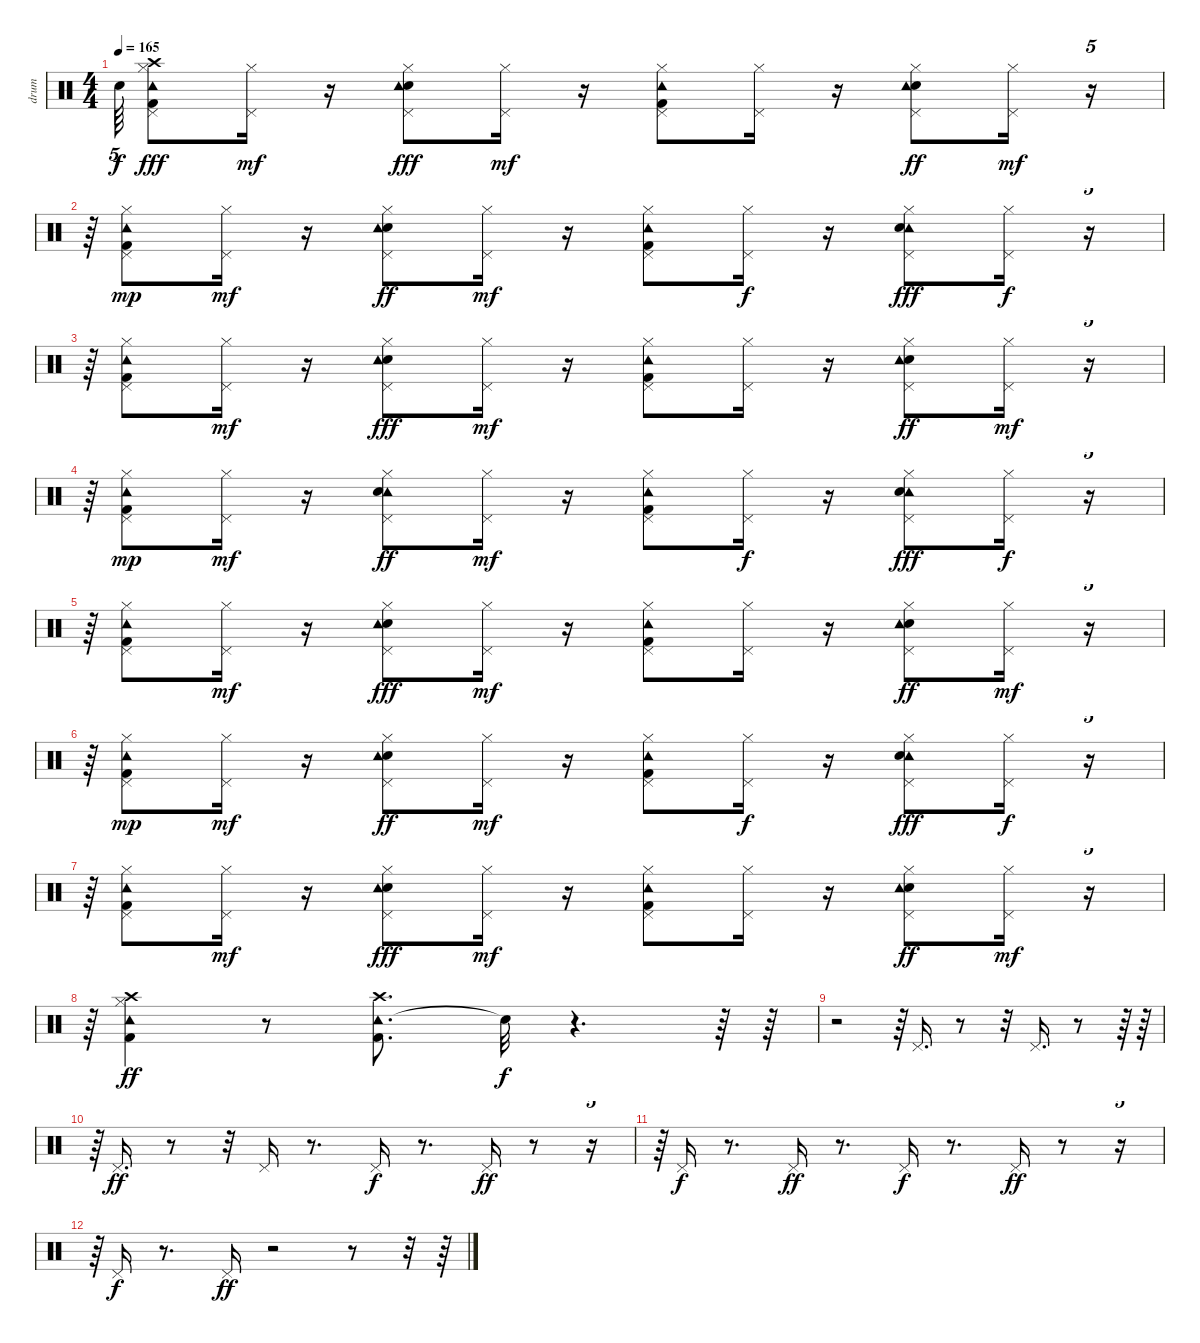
\track ("drum" "drum") {instrument percussion}
\staff {score}
\articulation defaults
\ts (4 4)
\tempo 165
\clef neutral
\ks c "Snare (hit)"{t}.64{tu (5 4) dy f}
("Hi-Hat (closed)" "Pedal Hi-Hat (hit)" "Kick (hit) 2" "Tambourine (hit)" "Crash high (hit)").8{dy fff} ("Hi-Hat (closed)" "Pedal Hi-Hat (hit)").16{dy mf} r.16 ("Hi-Hat (closed)" "Pedal Hi-Hat (hit)" "Electric Snare (hit)" "Tambourine (hit)").8{dy fff} ("Hi-Hat (closed)" "Pedal Hi-Hat (hit)").16{dy mf} r.16 ("Hi-Hat (closed)" "Pedal Hi-Hat (hit)" "Kick (hit) 2" "Tambourine (hit)").8 ("Hi-Hat (closed)" "Pedal Hi-Hat (hit)").16 r.16 ("Hi-Hat (closed)" "Pedal Hi-Hat (hit)" "Electric Snare (hit)" "Tambourine (hit)").8{dy ff} ("Hi-Hat (closed)" "Pedal Hi-Hat (hit)").16{dy mf} r.16{tu (5 4)} |
r.64{tu (5 4)} ("Hi-Hat (closed)" "Pedal Hi-Hat (hit)" "Kick (hit) 2" "Tambourine (hit)").8{dy mp} ("Hi-Hat (closed)" "Pedal Hi-Hat (hit)").16{dy mf} r.16 ("Hi-Hat (closed)" "Pedal Hi-Hat (hit)" "Electric Snare (hit)" "Tambourine (hit)").8{dy ff} ("Hi-Hat (closed)" "Pedal Hi-Hat (hit)").16{dy mf} r.16 ("Hi-Hat (closed)" "Tambourine (hit)" "Pedal Hi-Hat (hit)" "Kick (hit) 2").8 ("Hi-Hat (closed)" "Pedal Hi-Hat (hit)").16{dy f} r.16 ("Hi-Hat (closed)" "Tambourine (hit)" "Pedal Hi-Hat (hit)" "Electric Snare (hit)").8{dy fff} ("Hi-Hat (closed)" "Pedal Hi-Hat (hit)").16{dy f} r.16{tu (5 4)} |
r.64{tu (5 4)} ("Hi-Hat (closed)" "Pedal Hi-Hat (hit)" "Kick (hit) 2" "Tambourine (hit)").8 ("Hi-Hat (closed)" "Pedal Hi-Hat (hit)").16{dy mf} r.16 ("Hi-Hat (closed)" "Pedal Hi-Hat (hit)" "Electric Snare (hit)" "Tambourine (hit)").8{dy fff} ("Hi-Hat (closed)" "Pedal Hi-Hat (hit)").16{dy mf} r.16 ("Hi-Hat (closed)" "Pedal Hi-Hat (hit)" "Kick (hit) 2" "Tambourine (hit)").8 ("Hi-Hat (closed)" "Pedal Hi-Hat (hit)").16 r.16 ("Hi-Hat (closed)" "Pedal Hi-Hat (hit)" "Electric Snare (hit)" "Tambourine (hit)").8{dy ff} ("Hi-Hat (closed)" "Pedal Hi-Hat (hit)").16{dy mf} r.16{tu (5 4)} |
r.64{tu (5 4)} ("Hi-Hat (closed)" "Pedal Hi-Hat (hit)" "Kick (hit) 2" "Tambourine (hit)").8{dy mp} ("Hi-Hat (closed)" "Pedal Hi-Hat (hit)").16{dy mf} r.16 ("Hi-Hat (closed)" "Tambourine (hit)" "Pedal Hi-Hat (hit)" "Electric Snare (hit)").8{dy ff} ("Hi-Hat (closed)" "Pedal Hi-Hat (hit)").16{dy mf} r.16 ("Hi-Hat (closed)" "Pedal Hi-Hat (hit)" "Kick (hit) 2" "Tambourine (hit)").8 ("Hi-Hat (closed)" "Pedal Hi-Hat (hit)").16{dy f} r.16 ("Hi-Hat (closed)" "Tambourine (hit)" "Pedal Hi-Hat (hit)" "Electric Snare (hit)").8{dy fff} ("Hi-Hat (closed)" "Pedal Hi-Hat (hit)").16{dy f} r.16{tu (5 4)} |
r.64{tu (5 4)} ("Hi-Hat (closed)" "Pedal Hi-Hat (hit)" "Kick (hit) 2" "Tambourine (hit)").8 ("Hi-Hat (closed)" "Pedal Hi-Hat (hit)").16{dy mf} r.16 ("Hi-Hat (closed)" "Pedal Hi-Hat (hit)" "Electric Snare (hit)" "Tambourine (hit)").8{dy fff} ("Hi-Hat (closed)" "Pedal Hi-Hat (hit)").16{dy mf} r.16 ("Hi-Hat (closed)" "Pedal Hi-Hat (hit)" "Kick (hit) 2" "Tambourine (hit)").8 ("Hi-Hat (closed)" "Pedal Hi-Hat (hit)").16 r.16 ("Hi-Hat (closed)" "Pedal Hi-Hat (hit)" "Electric Snare (hit)" "Tambourine (hit)").8{dy ff} ("Hi-Hat (closed)" "Pedal Hi-Hat (hit)").16{dy mf} r.16{tu (5 4)} |
r.64{tu (5 4)} ("Hi-Hat (closed)" "Pedal Hi-Hat (hit)" "Kick (hit) 2" "Tambourine (hit)").8{dy mp} ("Hi-Hat (closed)" "Pedal Hi-Hat (hit)").16{dy mf} r.16 ("Hi-Hat (closed)" "Pedal Hi-Hat (hit)" "Electric Snare (hit)" "Tambourine (hit)").8{dy ff} ("Hi-Hat (closed)" "Pedal Hi-Hat (hit)").16{dy mf} r.16 ("Hi-Hat (closed)" "Pedal Hi-Hat (hit)" "Kick (hit) 2" "Tambourine (hit)").8 ("Hi-Hat (closed)" "Pedal Hi-Hat (hit)").16{dy f} r.16 ("Hi-Hat (closed)" "Tambourine (hit)" "Pedal Hi-Hat (hit)" "Electric Snare (hit)").8{dy fff} ("Hi-Hat (closed)" "Pedal Hi-Hat (hit)").16{dy f} r.16{tu (5 4)} |
r.64{tu (5 4)} ("Hi-Hat (closed)" "Pedal Hi-Hat (hit)" "Kick (hit) 2" "Tambourine (hit)").8 ("Hi-Hat (closed)" "Pedal Hi-Hat (hit)").16{dy mf} r.16 ("Hi-Hat (closed)" "Pedal Hi-Hat (hit)" "Electric Snare (hit)" "Tambourine (hit)").8{dy fff} ("Hi-Hat (closed)" "Pedal Hi-Hat (hit)").16{dy mf} r.16 ("Hi-Hat (closed)" "Pedal Hi-Hat (hit)" "Kick (hit) 2" "Tambourine (hit)").8 ("Hi-Hat (closed)" "Pedal Hi-Hat (hit)").16 r.16 ("Hi-Hat (closed)" "Pedal Hi-Hat (hit)" "Electric Snare (hit)" "Tambourine (hit)").8{dy ff} ("Hi-Hat (closed)" "Pedal Hi-Hat (hit)").16{dy mf} r.16{tu (5 4)} |
r.64{tu (5 4)} ("Hi-Hat (closed)" "Kick (hit) 2" "Crash high (hit)" "Tambourine (hit)").4{dy ff} r.8 ("Tambourine (hit)" "Kick (hit) 2" "Crash high (hit)").8{d} "Snare (hit)"{t}.32{dy f} r.4{d} r.64 r.64 |
r.2 r.64{tu (5 4)} "Pedal Hi-Hat (hit)".16{d} r.8 r.32 "Pedal Hi-Hat (hit)".16{d} r.8 r.64 r.64 |
r.64{tu (5 4)} "Pedal Hi-Hat (hit)".16{d dy ff} r.8 r.32 "Pedal Hi-Hat (hit)".16 r.8{d} "Pedal Hi-Hat (hit)".16{dy f} r.8{d} "Pedal Hi-Hat (hit)".16{dy ff} r.8 r.16{tu (5 4)} |
r.64{tu (5 4)} "Pedal Hi-Hat (hit)".16{dy f} r.8{d} "Pedal Hi-Hat (hit)".16{dy ff} r.8{d} "Pedal Hi-Hat (hit)".16{dy f} r.8{d} "Pedal Hi-Hat (hit)".16{dy ff} r.8 r.16{tu (5 4)} |
r.64{tu (5 4)} "Pedal Hi-Hat (hit)".16{dy f} r.8{d} "Pedal Hi-Hat (hit)".16{dy ff} r.2 r.8 r.32 r.64
